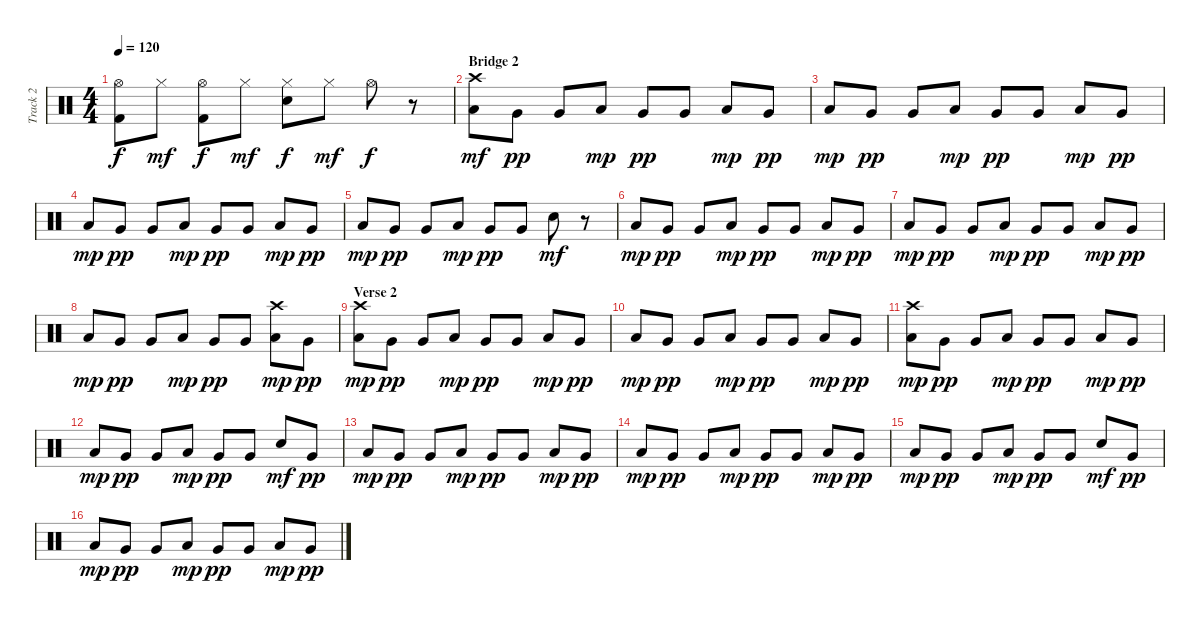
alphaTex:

\track ("Track 2" "Track 2") {instrument percussion}
\staff {score}
\articulation defaults
\ts (4 4)
\tempo 120
\clef neutral
\ks c
("Hi-Hat (open)" "Kick (hit) 2").8{dy f} "Hi-Hat (closed)".8{dy mf} ("Hi-Hat (open)" "Kick (hit) 2").8{dy f} "Hi-Hat (closed)".8{dy mf} ("Hi-Hat (closed)" "Electric Snare (hit)").8{dy f} "Hi-Hat (closed)".8{dy mf} "Hi-Hat (open)".8{dy f} r.8 |
\section ("" "Bridge 2")
("Low Tom (hit)" "Crash high (hit)").8{dy mf} "Very Low Tom (hit)".8{dy pp} "Very Low Tom (hit)".8 "Low Tom (hit)".8{dy mp} "Very Low Tom (hit)".8{dy pp} "Very Low Tom (hit)".8 "Low Tom (hit)".8{dy mp} "Very Low Tom (hit)".8{dy pp} |
"Low Tom (hit)".8{dy mp} "Very Low Tom (hit)".8{dy pp} "Very Low Tom (hit)".8 "Low Tom (hit)".8{dy mp} "Very Low Tom (hit)".8{dy pp} "Very Low Tom (hit)".8 "Low Tom (hit)".8{dy mp} "Very Low Tom (hit)".8{dy pp} |
"Low Tom (hit)".8{dy mp} "Very Low Tom (hit)".8{dy pp} "Very Low Tom (hit)".8 "Low Tom (hit)".8{dy mp} "Very Low Tom (hit)".8{dy pp} "Very Low Tom (hit)".8 "Low Tom (hit)".8{dy mp} "Very Low Tom (hit)".8{dy pp} |
"Low Tom (hit)".8{dy mp} "Very Low Tom (hit)".8{dy pp} "Very Low Tom (hit)".8 "Low Tom (hit)".8{dy mp} "Very Low Tom (hit)".8{dy pp} "Very Low Tom (hit)".8 "Electric Snare (hit)".8{dy mf} r.8 |
"Low Tom (hit)".8{dy mp} "Very Low Tom (hit)".8{dy pp} "Very Low Tom (hit)".8 "Low Tom (hit)".8{dy mp} "Very Low Tom (hit)".8{dy pp} "Very Low Tom (hit)".8 "Low Tom (hit)".8{dy mp} "Very Low Tom (hit)".8{dy pp} |
"Low Tom (hit)".8{dy mp} "Very Low Tom (hit)".8{dy pp} "Very Low Tom (hit)".8 "Low Tom (hit)".8{dy mp} "Very Low Tom (hit)".8{dy pp} "Very Low Tom (hit)".8 "Low Tom (hit)".8{dy mp} "Very Low Tom (hit)".8{dy pp} |
"Low Tom (hit)".8{dy mp} "Very Low Tom (hit)".8{dy pp} "Very Low Tom (hit)".8 "Low Tom (hit)".8{dy mp} "Very Low Tom (hit)".8{dy pp} "Very Low Tom (hit)".8 ("Low Tom (hit)" "Crash high (hit)").8{dy mp} "Very Low Tom (hit)".8{dy pp} |
\section ("" "Verse 2")
("Low Tom (hit)" "Crash high (hit)").8{dy mp} "Very Low Tom (hit)".8{dy pp} "Very Low Tom (hit)".8 "Low Tom (hit)".8{dy mp} "Very Low Tom (hit)".8{dy pp} "Very Low Tom (hit)".8 "Low Tom (hit)".8{dy mp} "Very Low Tom (hit)".8{dy pp} |
"Low Tom (hit)".8{dy mp} "Very Low Tom (hit)".8{dy pp} "Very Low Tom (hit)".8 "Low Tom (hit)".8{dy mp} "Very Low Tom (hit)".8{dy pp} "Very Low Tom (hit)".8 "Low Tom (hit)".8{dy mp} "Very Low Tom (hit)".8{dy pp} |
("Low Tom (hit)" "Crash high (hit)").8{dy mp} "Very Low Tom (hit)".8{dy pp} "Very Low Tom (hit)".8 "Low Tom (hit)".8{dy mp} "Very Low Tom (hit)".8{dy pp} "Very Low Tom (hit)".8 "Low Tom (hit)".8{dy mp} "Very Low Tom (hit)".8{dy pp} |
"Low Tom (hit)".8{dy mp} "Very Low Tom (hit)".8{dy pp} "Very Low Tom (hit)".8 "Low Tom (hit)".8{dy mp} "Very Low Tom (hit)".8{dy pp} "Very Low Tom (hit)".8 "Electric Snare (hit)".8{dy mf} "Very Low Tom (hit)".8{dy pp} |
"Low Tom (hit)".8{dy mp} "Very Low Tom (hit)".8{dy pp} "Very Low Tom (hit)".8 "Low Tom (hit)".8{dy mp} "Very Low Tom (hit)".8{dy pp} "Very Low Tom (hit)".8 "Low Tom (hit)".8{dy mp} "Very Low Tom (hit)".8{dy pp} |
"Low Tom (hit)".8{dy mp} "Very Low Tom (hit)".8{dy pp} "Very Low Tom (hit)".8 "Low Tom (hit)".8{dy mp} "Very Low Tom (hit)".8{dy pp} "Very Low Tom (hit)".8 "Low Tom (hit)".8{dy mp} "Very Low Tom (hit)".8{dy pp} |
"Low Tom (hit)".8{dy mp} "Very Low Tom (hit)".8{dy pp} "Very Low Tom (hit)".8 "Low Tom (hit)".8{dy mp} "Very Low Tom (hit)".8{dy pp} "Very Low Tom (hit)".8 "Electric Snare (hit)".8{dy mf} "Very Low Tom (hit)".8{dy pp} |
"Low Tom (hit)".8{dy mp} "Very Low Tom (hit)".8{dy pp} "Very Low Tom (hit)".8 "Low Tom (hit)".8{dy mp} "Very Low Tom (hit)".8{dy pp} "Very Low Tom (hit)".8 "Low Tom (hit)".8{dy mp} "Very Low Tom (hit)".8{dy pp}
